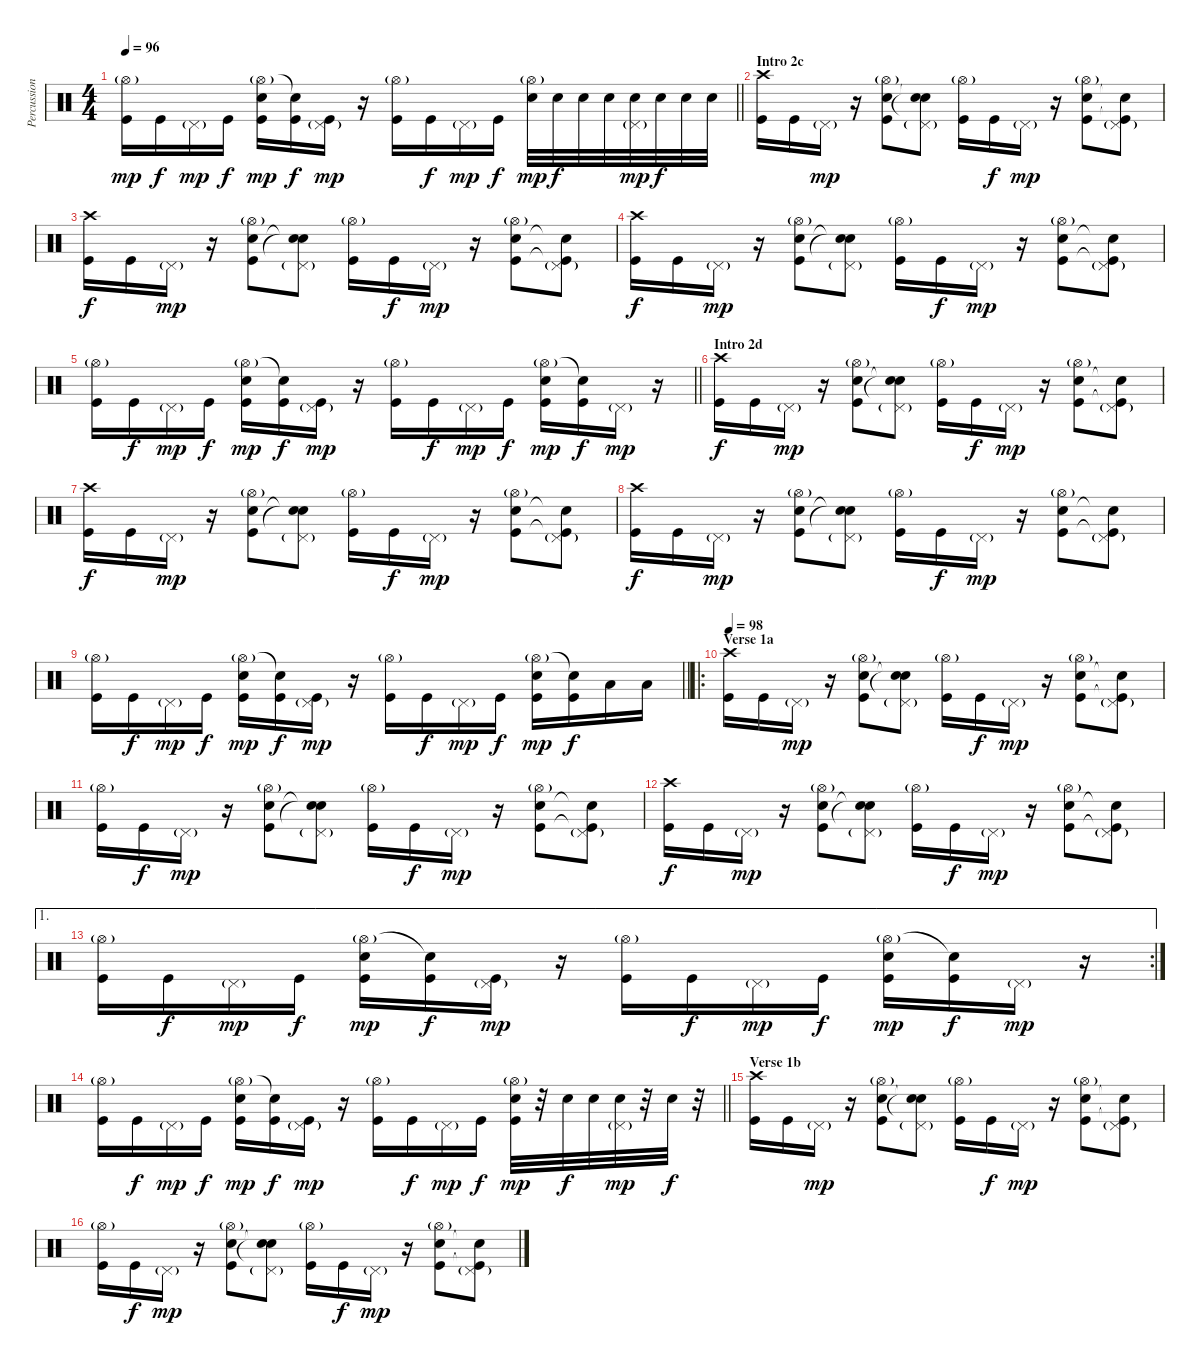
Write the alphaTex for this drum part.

\track ("Percussion" "Percussion") {instrument percussion}
\staff {score}
\articulation defaults
\ts (4 4)
\tempo 96
\clef neutral
\barLineRight lightlight
\ks c
("Hi-Hat (open)"{g} "Kick (hit)").16{dy mp} "Kick (hit)".16{dy f} "Pedal Hi-Hat (hit)"{g}.16{dy mp} "Kick (hit)".16{dy f} ("Hi-Hat (open)"{g} "Snare (hit) 2" "Kick (hit)").16{dy mp} ("Snare (hit)"{t} "Kick (hit)").16{dy f} ("Pedal Hi-Hat (hit)"{g} "Kick (hit)").16{dy mp} r.16 ("Hi-Hat (open)"{g} "Kick (hit)").16 "Kick (hit)".16{dy f} "Pedal Hi-Hat (hit)"{g}.16{dy mp} "Kick (hit)".16{dy f} ("Hi-Hat (open)"{g} "Snare (hit) 2").32{dy mp} "Snare (hit) 2".32{dy f} "Snare (hit) 2".32 "Snare (hit) 2".32 ("Pedal Hi-Hat (hit)"{g} "Snare (hit) 2").32{dy mp} "Snare (hit) 2".32{dy f} "Snare (hit) 2".32 "Snare (hit) 2".32 |
\section ("" "Intro 2c")
("Crash high (hit)" "Kick (hit)").16 "Kick (hit)".16 "Pedal Hi-Hat (hit)"{g}.16{dy mp} r.16 ("Hi-Hat (open)"{g} "Snare (hit) 2" "Kick (hit)").8 ("Pedal Hi-Hat (hit)"{g} "Snare (hit)"{t} "Snare (hit)"{t}).8 ("Hi-Hat (open)"{g} "Kick (hit)").16 "Kick (hit)".16{dy f} "Pedal Hi-Hat (hit)"{g}.16{dy mp} r.16 ("Hi-Hat (open)"{g} "Snare (hit) 2" "Kick (hit)").8 ("Pedal Hi-Hat (hit)"{g} "Snare (hit)"{t} "Kick (hit)"{t}).8 |
("Crash high (hit)" "Kick (hit)").16{dy f} "Kick (hit)".16 "Pedal Hi-Hat (hit)"{g}.16{dy mp} r.16 ("Hi-Hat (open)"{g} "Snare (hit) 2" "Kick (hit)").8 ("Pedal Hi-Hat (hit)"{g} "Snare (hit)"{t} "Snare (hit)"{t}).8 ("Hi-Hat (open)"{g} "Kick (hit)").16 "Kick (hit)".16{dy f} "Pedal Hi-Hat (hit)"{g}.16{dy mp} r.16 ("Hi-Hat (open)"{g} "Snare (hit) 2" "Kick (hit)").8 ("Pedal Hi-Hat (hit)"{g} "Snare (hit)"{t} "Kick (hit)"{t}).8 |
("Crash high (hit)" "Kick (hit)").16{dy f} "Kick (hit)".16 "Pedal Hi-Hat (hit)"{g}.16{dy mp} r.16 ("Hi-Hat (open)"{g} "Snare (hit) 2" "Kick (hit)").8 ("Pedal Hi-Hat (hit)"{g} "Snare (hit)"{t} "Snare (hit)"{t}).8 ("Hi-Hat (open)"{g} "Kick (hit)").16 "Kick (hit)".16{dy f} "Pedal Hi-Hat (hit)"{g}.16{dy mp} r.16 ("Hi-Hat (open)"{g} "Snare (hit) 2" "Kick (hit)").8 ("Pedal Hi-Hat (hit)"{g} "Snare (hit)"{t} "Kick (hit)"{t}).8 |
\barLineRight lightlight
("Hi-Hat (open)"{g} "Kick (hit)").16 "Kick (hit)".16{dy f} "Pedal Hi-Hat (hit)"{g}.16{dy mp} "Kick (hit)".16{dy f} ("Hi-Hat (open)"{g} "Snare (hit) 2" "Kick (hit)").16{dy mp} ("Snare (hit)"{t} "Kick (hit)").16{dy f} ("Pedal Hi-Hat (hit)"{g} "Kick (hit)").16{dy mp} r.16 ("Hi-Hat (open)"{g} "Kick (hit)").16 "Kick (hit)".16{dy f} "Pedal Hi-Hat (hit)"{g}.16{dy mp} "Kick (hit)".16{dy f} ("Hi-Hat (open)"{g} "Snare (hit) 2" "Kick (hit)").16{dy mp} ("Snare (hit)"{t} "Kick (hit)").16{dy f} "Pedal Hi-Hat (hit)"{g}.16{dy mp} r.16 |
\section ("" "Intro 2d")
("Crash high (hit)" "Kick (hit)").16{dy f} "Kick (hit)".16 "Pedal Hi-Hat (hit)"{g}.16{dy mp} r.16 ("Hi-Hat (open)"{g} "Snare (hit) 2" "Kick (hit)").8 ("Pedal Hi-Hat (hit)"{g} "Snare (hit)"{t} "Snare (hit)"{t}).8 ("Hi-Hat (open)"{g} "Kick (hit)").16 "Kick (hit)".16{dy f} "Pedal Hi-Hat (hit)"{g}.16{dy mp} r.16 ("Hi-Hat (open)"{g} "Snare (hit) 2" "Kick (hit)").8 ("Pedal Hi-Hat (hit)"{g} "Snare (hit)"{t} "Kick (hit)"{t}).8 |
("Crash high (hit)" "Kick (hit)").16{dy f} "Kick (hit)".16 "Pedal Hi-Hat (hit)"{g}.16{dy mp} r.16 ("Hi-Hat (open)"{g} "Snare (hit) 2" "Kick (hit)").8 ("Pedal Hi-Hat (hit)"{g} "Snare (hit)"{t} "Snare (hit)"{t}).8 ("Hi-Hat (open)"{g} "Kick (hit)").16 "Kick (hit)".16{dy f} "Pedal Hi-Hat (hit)"{g}.16{dy mp} r.16 ("Hi-Hat (open)"{g} "Snare (hit) 2" "Kick (hit)").8 ("Pedal Hi-Hat (hit)"{g} "Snare (hit)"{t} "Kick (hit)"{t}).8 |
("Crash high (hit)" "Kick (hit)").16{dy f} "Kick (hit)".16 "Pedal Hi-Hat (hit)"{g}.16{dy mp} r.16 ("Hi-Hat (open)"{g} "Snare (hit) 2" "Kick (hit)").8 ("Pedal Hi-Hat (hit)"{g} "Snare (hit)"{t} "Snare (hit)"{t}).8 ("Hi-Hat (open)"{g} "Kick (hit)").16 "Kick (hit)".16{dy f} "Pedal Hi-Hat (hit)"{g}.16{dy mp} r.16 ("Hi-Hat (open)"{g} "Snare (hit) 2" "Kick (hit)").8 ("Pedal Hi-Hat (hit)"{g} "Snare (hit)"{t} "Kick (hit)"{t}).8 |
\barLineRight lightlight
("Hi-Hat (open)"{g} "Kick (hit)").16 "Kick (hit)".16{dy f} "Pedal Hi-Hat (hit)"{g}.16{dy mp} "Kick (hit)".16{dy f} ("Hi-Hat (open)"{g} "Snare (hit) 2" "Kick (hit)").16{dy mp} ("Snare (hit)"{t} "Kick (hit)").16{dy f} ("Pedal Hi-Hat (hit)"{g} "Kick (hit)").16{dy mp} r.16 ("Hi-Hat (open)"{g} "Kick (hit)").16 "Kick (hit)".16{dy f} "Pedal Hi-Hat (hit)"{g}.16{dy mp} "Kick (hit)".16{dy f} ("Hi-Hat (open)"{g} "Snare (hit) 2" "Kick (hit)").16{dy mp} ("Snare (hit)"{t} "Kick (hit)").16{dy f} "Low Tom (hit)".16 "Low Floor Tom (hit)".16 |
\ro
\section ("" "Verse 1a")
\tempo 98
("Crash high (hit)" "Kick (hit)").16 "Kick (hit)".16 "Pedal Hi-Hat (hit)"{g}.16{dy mp} r.16 ("Hi-Hat (open)"{g} "Snare (hit) 2" "Kick (hit)").8 ("Pedal Hi-Hat (hit)"{g} "Snare (hit)"{t} "Snare (hit)"{t}).8 ("Hi-Hat (open)"{g} "Kick (hit)").16 "Kick (hit)".16{dy f} "Pedal Hi-Hat (hit)"{g}.16{dy mp} r.16 ("Hi-Hat (open)"{g} "Snare (hit) 2" "Kick (hit)").8 ("Pedal Hi-Hat (hit)"{g} "Snare (hit)"{t} "Kick (hit)"{t}).8 |
("Hi-Hat (open)"{g} "Kick (hit)").16 "Kick (hit)".16{dy f} "Pedal Hi-Hat (hit)"{g}.16{dy mp} r.16 ("Hi-Hat (open)"{g} "Snare (hit) 2" "Kick (hit)").8 ("Pedal Hi-Hat (hit)"{g} "Snare (hit)"{t} "Snare (hit)"{t}).8 ("Hi-Hat (open)"{g} "Kick (hit)").16 "Kick (hit)".16{dy f} "Pedal Hi-Hat (hit)"{g}.16{dy mp} r.16 ("Hi-Hat (open)"{g} "Snare (hit) 2" "Kick (hit)").8 ("Pedal Hi-Hat (hit)"{g} "Snare (hit)"{t} "Kick (hit)"{t}).8 |
("Crash high (hit)" "Kick (hit)").16{dy f} "Kick (hit)".16 "Pedal Hi-Hat (hit)"{g}.16{dy mp} r.16 ("Hi-Hat (open)"{g} "Snare (hit) 2" "Kick (hit)").8 ("Pedal Hi-Hat (hit)"{g} "Snare (hit)"{t} "Snare (hit)"{t}).8 ("Hi-Hat (open)"{g} "Kick (hit)").16 "Kick (hit)".16{dy f} "Pedal Hi-Hat (hit)"{g}.16{dy mp} r.16 ("Hi-Hat (open)"{g} "Snare (hit) 2" "Kick (hit)").8 ("Pedal Hi-Hat (hit)"{g} "Snare (hit)"{t} "Kick (hit)"{t}).8 |
\ae 1
\rc 2
("Hi-Hat (open)"{g} "Kick (hit)").16 "Kick (hit)".16{dy f} "Pedal Hi-Hat (hit)"{g}.16{dy mp} "Kick (hit)".16{dy f} ("Hi-Hat (open)"{g} "Snare (hit) 2" "Kick (hit)").16{dy mp} ("Snare (hit)"{t} "Kick (hit)").16{dy f} ("Pedal Hi-Hat (hit)"{g} "Kick (hit)").16{dy mp} r.16 ("Hi-Hat (open)"{g} "Kick (hit)").16 "Kick (hit)".16{dy f} "Pedal Hi-Hat (hit)"{g}.16{dy mp} "Kick (hit)".16{dy f} ("Hi-Hat (open)"{g} "Snare (hit) 2" "Kick (hit)").16{dy mp} ("Snare (hit)"{t} "Kick (hit)").16{dy f} "Pedal Hi-Hat (hit)"{g}.16{dy mp} r.16 |
\barLineRight lightlight
("Hi-Hat (open)"{g} "Kick (hit)").16 "Kick (hit)".16{dy f} "Pedal Hi-Hat (hit)"{g}.16{dy mp} "Kick (hit)".16{dy f} ("Hi-Hat (open)"{g} "Snare (hit) 2" "Kick (hit)").16{dy mp} ("Snare (hit)"{t} "Kick (hit)").16{dy f} ("Pedal Hi-Hat (hit)"{g} "Kick (hit)").16{dy mp} r.16 ("Hi-Hat (open)"{g} "Kick (hit)").16 "Kick (hit)".16{dy f} "Pedal Hi-Hat (hit)"{g}.16{dy mp} "Kick (hit)".16{dy f} ("Hi-Hat (open)"{g} "Snare (hit) 2" "Kick (hit)").32{dy mp} r.32 "Snare (hit) 2".32{dy f} "Snare (hit) 2".32 ("Pedal Hi-Hat (hit)"{g} "Snare (hit) 2").32{dy mp} r.32 "Snare (hit) 2".32{dy f} r.32 |
\section ("" "Verse 1b")
("Crash high (hit)" "Kick (hit)").16 "Kick (hit)".16 "Pedal Hi-Hat (hit)"{g}.16{dy mp} r.16 ("Hi-Hat (open)"{g} "Snare (hit) 2" "Kick (hit)").8 ("Pedal Hi-Hat (hit)"{g} "Snare (hit)"{t} "Snare (hit)"{t}).8 ("Hi-Hat (open)"{g} "Kick (hit)").16 "Kick (hit)".16{dy f} "Pedal Hi-Hat (hit)"{g}.16{dy mp} r.16 ("Hi-Hat (open)"{g} "Snare (hit) 2" "Kick (hit)").8 ("Pedal Hi-Hat (hit)"{g} "Snare (hit)"{t} "Kick (hit)"{t}).8 |
("Hi-Hat (open)"{g} "Kick (hit)").16 "Kick (hit)".16{dy f} "Pedal Hi-Hat (hit)"{g}.16{dy mp} r.16 ("Hi-Hat (open)"{g} "Snare (hit) 2" "Kick (hit)").8 ("Pedal Hi-Hat (hit)"{g} "Snare (hit)"{t} "Snare (hit)"{t}).8 ("Hi-Hat (open)"{g} "Kick (hit)").16 "Kick (hit)".16{dy f} "Pedal Hi-Hat (hit)"{g}.16{dy mp} r.16 ("Hi-Hat (open)"{g} "Snare (hit) 2" "Kick (hit)").8 ("Pedal Hi-Hat (hit)"{g} "Snare (hit)"{t} "Kick (hit)"{t}).8
